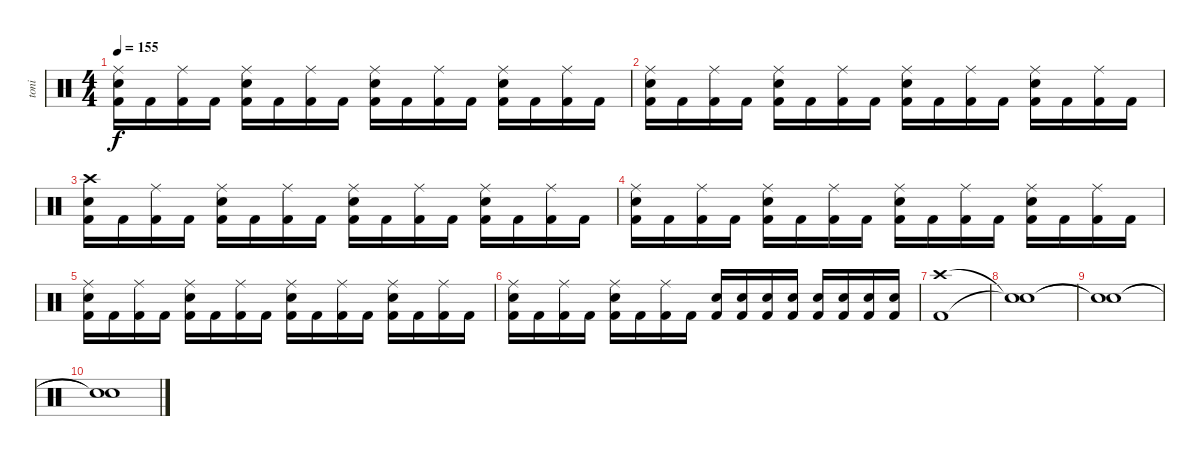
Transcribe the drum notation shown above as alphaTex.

\track ("toni" "toni") {instrument percussion}
\staff {score}
\articulation defaults
\ts (4 4)
\tempo 155
\clef neutral
\ks c
("Ride (middle)" "Snare (hit) 2" "Kick (hit) 2").16{dy f} "Kick (hit) 2".16 ("Ride (middle)" "Kick (hit) 2").16 "Kick (hit) 2".16 ("Ride (middle)" "Snare (hit) 2" "Kick (hit) 2").16 "Kick (hit) 2".16 ("Ride (middle)" "Kick (hit) 2").16 "Kick (hit) 2".16 ("Ride (middle)" "Snare (hit) 2" "Kick (hit) 2").16 "Kick (hit) 2".16 ("Ride (middle)" "Kick (hit) 2").16 "Kick (hit) 2".16 ("Ride (middle)" "Snare (hit) 2" "Kick (hit) 2").16 "Kick (hit) 2".16 ("Ride (middle)" "Kick (hit) 2").16 "Kick (hit) 2".16 |
("Ride (middle)" "Snare (hit) 2" "Kick (hit) 2").16 "Kick (hit) 2".16 ("Ride (middle)" "Kick (hit) 2").16 "Kick (hit) 2".16 ("Ride (middle)" "Snare (hit) 2" "Kick (hit) 2").16 "Kick (hit) 2".16 ("Ride (middle)" "Kick (hit) 2").16 "Kick (hit) 2".16 ("Ride (middle)" "Snare (hit) 2" "Kick (hit) 2").16 "Kick (hit) 2".16 ("Ride (middle)" "Kick (hit) 2").16 "Kick (hit) 2".16 ("Ride (middle)" "Snare (hit) 2" "Kick (hit) 2").16 "Kick (hit) 2".16 ("Ride (middle)" "Kick (hit) 2").16 "Kick (hit) 2".16 |
("Crash high (hit)" "Snare (hit) 2" "Kick (hit) 2").16 "Kick (hit) 2".16 ("Ride (middle)" "Kick (hit) 2").16 "Kick (hit) 2".16 ("Ride (middle)" "Snare (hit) 2" "Kick (hit) 2").16 "Kick (hit) 2".16 ("Ride (middle)" "Kick (hit) 2").16 "Kick (hit) 2".16 ("Ride (middle)" "Snare (hit) 2" "Kick (hit) 2").16 "Kick (hit) 2".16 ("Ride (middle)" "Kick (hit) 2").16 "Kick (hit) 2".16 ("Ride (middle)" "Snare (hit) 2" "Kick (hit) 2").16 "Kick (hit) 2".16 ("Ride (middle)" "Kick (hit) 2").16 "Kick (hit) 2".16 |
("Ride (middle)" "Snare (hit) 2" "Kick (hit) 2").16 "Kick (hit) 2".16 ("Ride (middle)" "Kick (hit) 2").16 "Kick (hit) 2".16 ("Ride (middle)" "Snare (hit) 2" "Kick (hit) 2").16 "Kick (hit) 2".16 ("Ride (middle)" "Kick (hit) 2").16 "Kick (hit) 2".16 ("Ride (middle)" "Snare (hit) 2" "Kick (hit) 2").16 "Kick (hit) 2".16 ("Ride (middle)" "Kick (hit) 2").16 "Kick (hit) 2".16 ("Ride (middle)" "Snare (hit) 2" "Kick (hit) 2").16 "Kick (hit) 2".16 ("Ride (middle)" "Kick (hit) 2").16 "Kick (hit) 2".16 |
("Ride (middle)" "Snare (hit) 2" "Kick (hit) 2").16 "Kick (hit) 2".16 ("Ride (middle)" "Kick (hit) 2").16 "Kick (hit) 2".16 ("Ride (middle)" "Snare (hit) 2" "Kick (hit) 2").16 "Kick (hit) 2".16 ("Ride (middle)" "Kick (hit) 2").16 "Kick (hit) 2".16 ("Ride (middle)" "Snare (hit) 2" "Kick (hit) 2").16 "Kick (hit) 2".16 ("Ride (middle)" "Kick (hit) 2").16 "Kick (hit) 2".16 ("Ride (middle)" "Snare (hit) 2" "Kick (hit) 2").16 "Kick (hit) 2".16 ("Ride (middle)" "Kick (hit) 2").16 "Kick (hit) 2".16 |
("Ride (middle)" "Snare (hit) 2" "Kick (hit) 2").16 "Kick (hit) 2".16 ("Ride (middle)" "Kick (hit) 2").16 "Kick (hit) 2".16 ("Ride (middle)" "Snare (hit) 2" "Kick (hit) 2").16 "Kick (hit) 2".16 ("Ride (middle)" "Kick (hit) 2").16 "Kick (hit) 2".16 ("Snare (hit) 2" "Kick (hit) 2").16 ("Snare (hit) 2" "Kick (hit) 2").16 ("Snare (hit) 2" "Kick (hit) 2").16 ("Snare (hit) 2" "Kick (hit) 2").16 ("Snare (hit) 2" "Kick (hit) 2").16 ("Snare (hit) 2" "Kick (hit) 2").16 ("Snare (hit) 2" "Kick (hit) 2").16 ("Snare (hit) 2" "Kick (hit) 2").16 |
("Crash high (hit)" "Kick (hit) 2").1 |
("Snare (hit)"{t} "Snare (hit)"{t}).1 |
("Snare (hit)"{t} "Snare (hit)"{t}).1 |
("Snare (hit)"{t} "Snare (hit)"{t}).1
